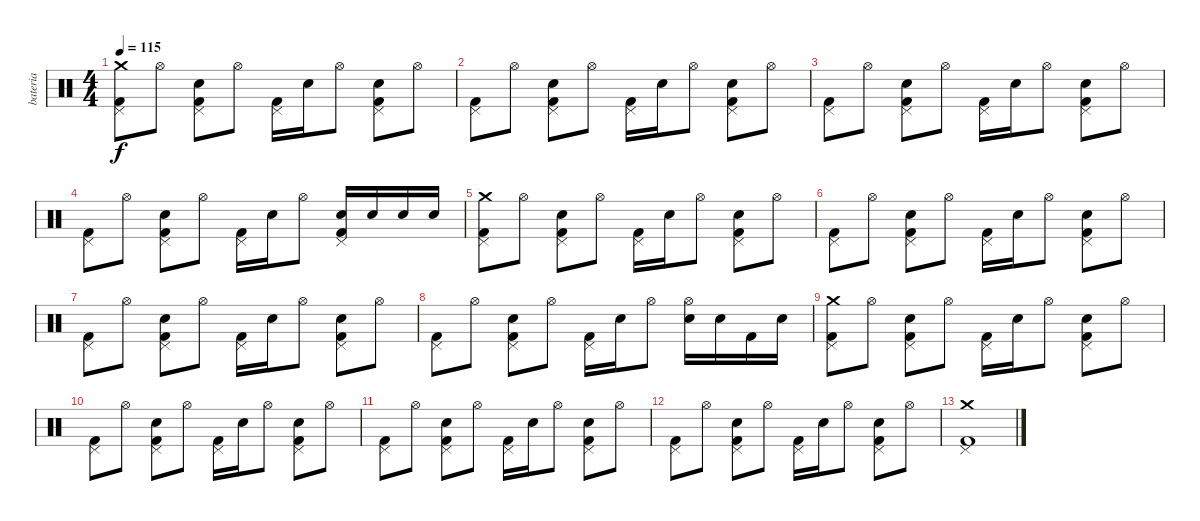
\track ("bateria" "bateria") {instrument percussion}
\staff {score}
\articulation defaults
\ts (4 4)
\tempo 115
\clef neutral
\ks c
("Crash medium (hit)" "Pedal Hi-Hat (hit)" "Kick (hit) 2").8{dy f} "Hi-Hat (open)".8 ("Pedal Hi-Hat (hit)" "Snare (hit) 2" "Kick (hit) 2").8 "Hi-Hat (open)".8 ("Pedal Hi-Hat (hit)" "Kick (hit) 2").16 "Snare (hit) 2".16 "Hi-Hat (open)".8 ("Pedal Hi-Hat (hit)" "Snare (hit) 2" "Kick (hit) 2").8 "Hi-Hat (open)".8 |
("Pedal Hi-Hat (hit)" "Kick (hit) 2").8 "Hi-Hat (open)".8 ("Pedal Hi-Hat (hit)" "Snare (hit) 2" "Kick (hit) 2").8 "Hi-Hat (open)".8 ("Pedal Hi-Hat (hit)" "Kick (hit) 2").16 "Snare (hit) 2".16 "Hi-Hat (open)".8 ("Pedal Hi-Hat (hit)" "Snare (hit) 2" "Kick (hit) 2").8 "Hi-Hat (open)".8 |
("Pedal Hi-Hat (hit)" "Kick (hit) 2").8 "Hi-Hat (open)".8 ("Pedal Hi-Hat (hit)" "Snare (hit) 2" "Kick (hit) 2").8 "Hi-Hat (open)".8 ("Pedal Hi-Hat (hit)" "Kick (hit) 2").16 "Snare (hit) 2".16 "Hi-Hat (open)".8 ("Pedal Hi-Hat (hit)" "Snare (hit) 2" "Kick (hit) 2").8 "Hi-Hat (open)".8 |
("Pedal Hi-Hat (hit)" "Kick (hit) 2").8 "Hi-Hat (open)".8 ("Pedal Hi-Hat (hit)" "Snare (hit) 2" "Kick (hit) 2").8 "Hi-Hat (open)".8 ("Pedal Hi-Hat (hit)" "Kick (hit) 2").16 "Snare (hit) 2".16 "Hi-Hat (open)".8 ("Pedal Hi-Hat (hit)" "Snare (hit) 2" "Kick (hit) 2").16 "Snare (hit) 2".16 "Snare (hit) 2".16 "Snare (hit) 2".16 |
("Crash medium (hit)" "Pedal Hi-Hat (hit)" "Kick (hit) 2").8 "Hi-Hat (open)".8 ("Pedal Hi-Hat (hit)" "Snare (hit) 2" "Kick (hit) 2").8 "Hi-Hat (open)".8 ("Pedal Hi-Hat (hit)" "Kick (hit) 2").16 "Snare (hit) 2".16 "Hi-Hat (open)".8 ("Pedal Hi-Hat (hit)" "Snare (hit) 2" "Kick (hit) 2").8 "Hi-Hat (open)".8 |
("Pedal Hi-Hat (hit)" "Kick (hit) 2").8 "Hi-Hat (open)".8 ("Pedal Hi-Hat (hit)" "Snare (hit) 2" "Kick (hit) 2").8 "Hi-Hat (open)".8 ("Pedal Hi-Hat (hit)" "Kick (hit) 2").16 "Snare (hit) 2".16 "Hi-Hat (open)".8 ("Pedal Hi-Hat (hit)" "Snare (hit) 2" "Kick (hit) 2").8 "Hi-Hat (open)".8 |
("Pedal Hi-Hat (hit)" "Kick (hit) 2").8 "Hi-Hat (open)".8 ("Pedal Hi-Hat (hit)" "Snare (hit) 2" "Kick (hit) 2").8 "Hi-Hat (open)".8 ("Pedal Hi-Hat (hit)" "Kick (hit) 2").16 "Snare (hit) 2".16 "Hi-Hat (open)".8 ("Pedal Hi-Hat (hit)" "Snare (hit) 2" "Kick (hit) 2").8 "Hi-Hat (open)".8 |
("Pedal Hi-Hat (hit)" "Kick (hit) 2").8 "Hi-Hat (open)".8 ("Pedal Hi-Hat (hit)" "Snare (hit) 2" "Kick (hit) 2").8 "Hi-Hat (open)".8 ("Pedal Hi-Hat (hit)" "Kick (hit) 2").16 "Snare (hit) 2".16 "Hi-Hat (open)".8 ("Hi-Hat (open)" "Snare (hit) 2").16 "Snare (hit) 2".16 "Kick (hit) 2".16 "Snare (hit) 2".16 |
("Crash medium (hit)" "Pedal Hi-Hat (hit)" "Kick (hit) 2").8 "Hi-Hat (open)".8 ("Pedal Hi-Hat (hit)" "Snare (hit) 2" "Kick (hit) 2").8 "Hi-Hat (open)".8 ("Pedal Hi-Hat (hit)" "Kick (hit) 2").16 "Snare (hit) 2".16 "Hi-Hat (open)".8 ("Pedal Hi-Hat (hit)" "Snare (hit) 2" "Kick (hit) 2").8 "Hi-Hat (open)".8 |
("Pedal Hi-Hat (hit)" "Kick (hit) 2").8 "Hi-Hat (open)".8 ("Pedal Hi-Hat (hit)" "Snare (hit) 2" "Kick (hit) 2").8 "Hi-Hat (open)".8 ("Pedal Hi-Hat (hit)" "Kick (hit) 2").16 "Snare (hit) 2".16 "Hi-Hat (open)".8 ("Pedal Hi-Hat (hit)" "Snare (hit) 2" "Kick (hit) 2").8 "Hi-Hat (open)".8 |
("Pedal Hi-Hat (hit)" "Kick (hit) 2").8 "Hi-Hat (open)".8 ("Pedal Hi-Hat (hit)" "Snare (hit) 2" "Kick (hit) 2").8 "Hi-Hat (open)".8 ("Pedal Hi-Hat (hit)" "Kick (hit) 2").16 "Snare (hit) 2".16 "Hi-Hat (open)".8 ("Pedal Hi-Hat (hit)" "Snare (hit) 2" "Kick (hit) 2").8 "Hi-Hat (open)".8 |
("Pedal Hi-Hat (hit)" "Kick (hit) 2").8 "Hi-Hat (open)".8 ("Pedal Hi-Hat (hit)" "Snare (hit) 2" "Kick (hit) 2").8 "Hi-Hat (open)".8 ("Pedal Hi-Hat (hit)" "Kick (hit) 2").16 "Snare (hit) 2".16 "Hi-Hat (open)".8 ("Pedal Hi-Hat (hit)" "Snare (hit) 2" "Kick (hit) 2").8 "Hi-Hat (open)".8 |
("Crash medium (hit)" "Pedal Hi-Hat (hit)" "Kick (hit) 2").1
